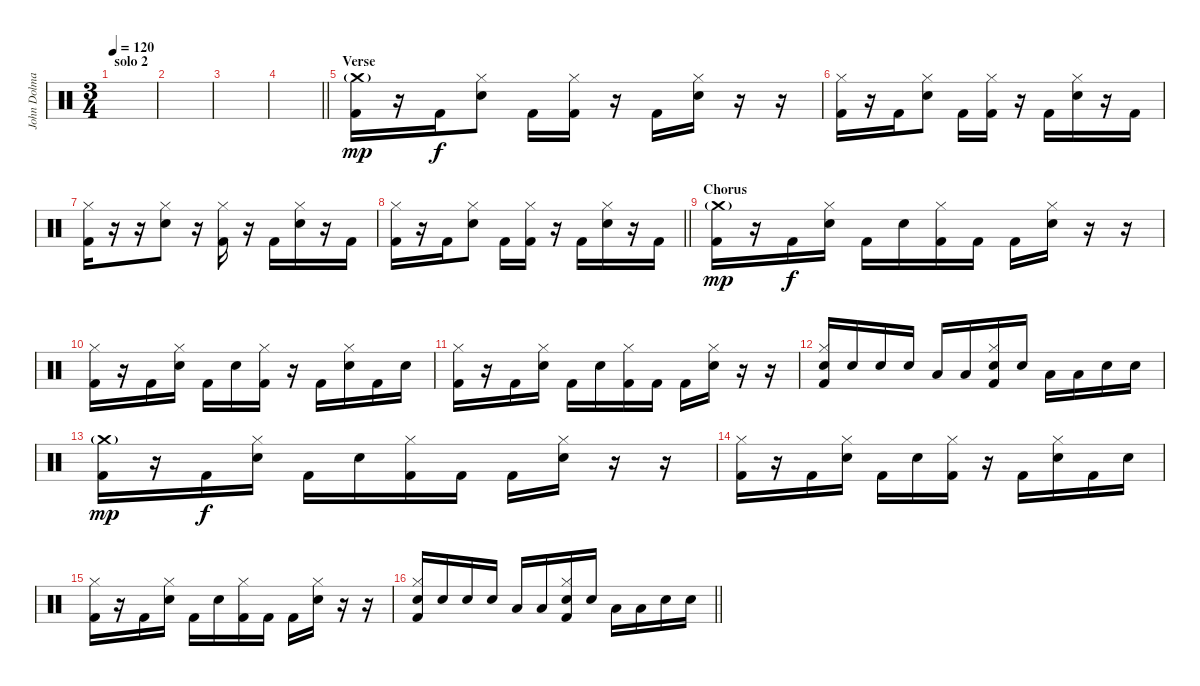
\track ("John Dolmayan" "John Dolma") {instrument percussion}
\staff {score}
\articulation defaults
\ts (3 4)
\section ("" "solo 2")
\tempo 120
\clef neutral
\ks c
|
|
|
\barLineRight lightlight
|
\section ("" "Verse ")
("Crash medium (hit)"{g} "Kick (hit) 2").16{dy mp} r.16 "Kick (hit) 2".16{dy f} ("Hi-Hat (closed)" "Electric Snare (hit)").8 "Kick (hit) 2".16 ("Hi-Hat (closed)" "Kick (hit) 2").16 r.16 "Kick (hit) 2".16 ("Hi-Hat (closed)" "Electric Snare (hit)").16 r.16 r.16 |
("Hi-Hat (closed)" "Kick (hit) 2").16 r.16 "Kick (hit) 2".16 ("Hi-Hat (closed)" "Electric Snare (hit)").8 "Kick (hit) 2".16 ("Hi-Hat (closed)" "Kick (hit) 2").16 r.16 "Kick (hit) 2".16 ("Hi-Hat (closed)" "Electric Snare (hit)").16 r.16 "Kick (hit) 2".16 |
("Hi-Hat (closed)" "Kick (hit) 2").16 r.16 r.16 ("Hi-Hat (closed)" "Electric Snare (hit)").8 r.16 ("Hi-Hat (closed)" "Kick (hit) 2").16 r.16 "Kick (hit) 2".16 ("Hi-Hat (closed)" "Electric Snare (hit)").16 r.16 "Kick (hit) 2".16 |
\barLineRight lightlight
("Hi-Hat (closed)" "Kick (hit) 2").16 r.16 "Kick (hit) 2".16 ("Hi-Hat (closed)" "Electric Snare (hit)").8 "Kick (hit) 2".16 ("Hi-Hat (closed)" "Kick (hit) 2").16 r.16 "Kick (hit) 2".16 ("Hi-Hat (closed)" "Electric Snare (hit)").16 r.16 "Kick (hit) 2".16 |
\section ("" "Chorus")
("Crash medium (hit)"{g} "Kick (hit) 2").16{dy mp} r.16 "Kick (hit) 2".16{dy f} ("Hi-Hat (closed)" "Electric Snare (hit)").16 "Kick (hit) 2".16 "Electric Snare (hit)".16 ("Hi-Hat (closed)" "Kick (hit) 2").16 "Kick (hit) 2".16 "Kick (hit) 2".16 ("Hi-Hat (closed)" "Electric Snare (hit)").16 r.16 r.16 |
("Hi-Hat (closed)" "Kick (hit) 2").16 r.16 "Kick (hit) 2".16 ("Hi-Hat (closed)" "Electric Snare (hit)").16 "Kick (hit) 2".16 "Electric Snare (hit)".16 ("Hi-Hat (closed)" "Kick (hit) 2").16 r.16 "Kick (hit) 2".16 ("Hi-Hat (closed)" "Electric Snare (hit)").16 "Kick (hit) 2".16 "Electric Snare (hit)".16 |
("Hi-Hat (closed)" "Kick (hit) 2").16 r.16 "Kick (hit) 2".16 ("Hi-Hat (closed)" "Electric Snare (hit)").16 "Kick (hit) 2".16 "Electric Snare (hit)".16 ("Hi-Hat (closed)" "Kick (hit) 2").16 "Kick (hit) 2".16 "Kick (hit) 2".16 ("Hi-Hat (closed)" "Electric Snare (hit)").16 r.16 r.16 |
("Hi-Hat (closed)" "Electric Snare (hit)" "Kick (hit) 2").16 "Electric Snare (hit)".16 "Electric Snare (hit)".16 "Electric Snare (hit)".16 "Low Tom (hit)".16 "Low Tom (hit)".16 ("Hi-Hat (closed)" "Electric Snare (hit)" "Kick (hit) 2").16 "Electric Snare (hit)".16 "Low Tom (hit)".16 "Low Tom (hit)".16 "Electric Snare (hit)".16 "Electric Snare (hit)".16 |
("Crash medium (hit)"{g} "Kick (hit) 2").16{dy mp} r.16 "Kick (hit) 2".16{dy f} ("Hi-Hat (closed)" "Electric Snare (hit)").16 "Kick (hit) 2".16 "Electric Snare (hit)".16 ("Hi-Hat (closed)" "Kick (hit) 2").16 "Kick (hit) 2".16 "Kick (hit) 2".16 ("Hi-Hat (closed)" "Electric Snare (hit)").16 r.16 r.16 |
("Hi-Hat (closed)" "Kick (hit) 2").16 r.16 "Kick (hit) 2".16 ("Hi-Hat (closed)" "Electric Snare (hit)").16 "Kick (hit) 2".16 "Electric Snare (hit)".16 ("Hi-Hat (closed)" "Kick (hit) 2").16 r.16 "Kick (hit) 2".16 ("Hi-Hat (closed)" "Electric Snare (hit)").16 "Kick (hit) 2".16 "Electric Snare (hit)".16 |
("Hi-Hat (closed)" "Kick (hit) 2").16 r.16 "Kick (hit) 2".16 ("Hi-Hat (closed)" "Electric Snare (hit)").16 "Kick (hit) 2".16 "Electric Snare (hit)".16 ("Hi-Hat (closed)" "Kick (hit) 2").16 "Kick (hit) 2".16 "Kick (hit) 2".16 ("Hi-Hat (closed)" "Electric Snare (hit)").16 r.16 r.16 |
\barLineRight lightlight
("Hi-Hat (closed)" "Electric Snare (hit)" "Kick (hit) 2").16 "Electric Snare (hit)".16 "Electric Snare (hit)".16 "Electric Snare (hit)".16 "Low Tom (hit)".16 "Low Tom (hit)".16 ("Hi-Hat (closed)" "Electric Snare (hit)" "Kick (hit) 2").16 "Electric Snare (hit)".16 "Low Tom (hit)".16 "Low Tom (hit)".16 "Electric Snare (hit)".16 "Electric Snare (hit)".16
